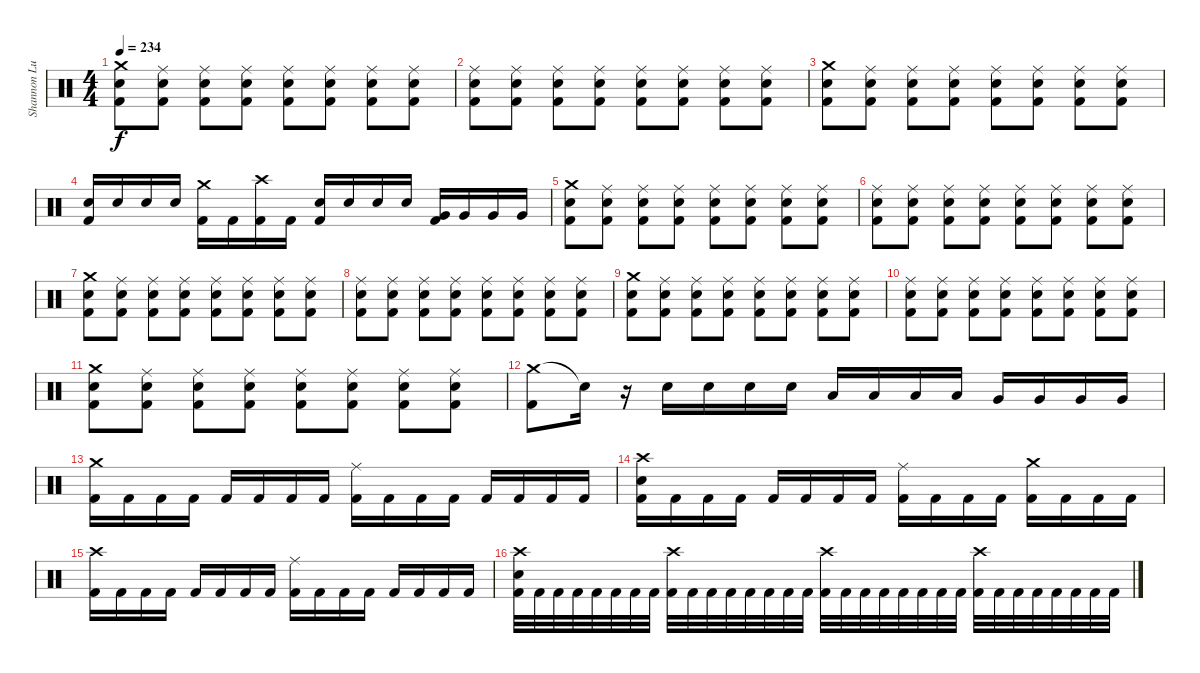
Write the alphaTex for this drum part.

\track ("Shannon Lucas (Drums)" "Shannon Lu") {instrument percussion}
\staff {score}
\articulation defaults
\ts (4 4)
\tempo 234
\clef neutral
\ks c
("Crash medium (hit)" "Electric Snare (hit)" "Kick (hit) 2").8{dy f} ("Ride (middle)" "Electric Snare (hit)" "Kick (hit) 2").8 ("Ride (middle)" "Electric Snare (hit)" "Kick (hit) 2").8 ("Ride (middle)" "Electric Snare (hit)" "Kick (hit) 2").8 ("Ride (middle)" "Electric Snare (hit)" "Kick (hit) 2").8 ("Ride (middle)" "Electric Snare (hit)" "Kick (hit) 2").8 ("Ride (middle)" "Electric Snare (hit)" "Kick (hit) 2").8 ("Ride (middle)" "Electric Snare (hit)" "Kick (hit) 2").8 |
("Ride (middle)" "Electric Snare (hit)" "Kick (hit) 2").8 ("Ride (middle)" "Electric Snare (hit)" "Kick (hit) 2").8 ("Ride (middle)" "Electric Snare (hit)" "Kick (hit) 2").8 ("Ride (middle)" "Electric Snare (hit)" "Kick (hit) 2").8 ("Ride (middle)" "Electric Snare (hit)" "Kick (hit) 2").8 ("Ride (middle)" "Electric Snare (hit)" "Kick (hit) 2").8 ("Ride (middle)" "Electric Snare (hit)" "Kick (hit) 2").8 ("Ride (middle)" "Electric Snare (hit)" "Kick (hit) 2").8 |
("Crash medium (hit)" "Electric Snare (hit)" "Kick (hit) 2").8 ("Ride (middle)" "Electric Snare (hit)" "Kick (hit) 2").8 ("Ride (middle)" "Electric Snare (hit)" "Kick (hit) 2").8 ("Ride (middle)" "Electric Snare (hit)" "Kick (hit) 2").8 ("Ride (middle)" "Electric Snare (hit)" "Kick (hit) 2").8 ("Ride (middle)" "Electric Snare (hit)" "Kick (hit) 2").8 ("Ride (middle)" "Electric Snare (hit)" "Kick (hit) 2").8 ("Ride (middle)" "Electric Snare (hit)" "Kick (hit) 2").8 |
("Electric Snare (hit)" "Kick (hit) 2").16 "Electric Snare (hit)".16 "Electric Snare (hit)".16 "Electric Snare (hit)".16 ("Crash medium (hit)" "Kick (hit) 2").16 "Kick (hit) 2".16 ("Crash high (hit)" "Kick (hit) 2").16 "Kick (hit) 2".16 ("Electric Snare (hit)" "Kick (hit) 2").16 "Electric Snare (hit)".16 "Electric Snare (hit)".16 "Electric Snare (hit)".16 ("Very Low Tom (hit)" "Kick (hit) 2").16 "Very Low Tom (hit)".16 "Very Low Tom (hit)".16 "Very Low Tom (hit)".16 |
("Crash medium (hit)" "Electric Snare (hit)" "Kick (hit) 2").8 ("Ride (middle)" "Electric Snare (hit)" "Kick (hit) 2").8 ("Ride (middle)" "Electric Snare (hit)" "Kick (hit) 2").8 ("Ride (middle)" "Electric Snare (hit)" "Kick (hit) 2").8 ("Ride (middle)" "Electric Snare (hit)" "Kick (hit) 2").8 ("Ride (middle)" "Electric Snare (hit)" "Kick (hit) 2").8 ("Ride (middle)" "Electric Snare (hit)" "Kick (hit) 2").8 ("Ride (middle)" "Electric Snare (hit)" "Kick (hit) 2").8 |
("Ride (middle)" "Electric Snare (hit)" "Kick (hit) 2").8 ("Ride (middle)" "Electric Snare (hit)" "Kick (hit) 2").8 ("Ride (middle)" "Electric Snare (hit)" "Kick (hit) 2").8 ("Ride (middle)" "Electric Snare (hit)" "Kick (hit) 2").8 ("Ride (middle)" "Electric Snare (hit)" "Kick (hit) 2").8 ("Ride (middle)" "Electric Snare (hit)" "Kick (hit) 2").8 ("Ride (middle)" "Electric Snare (hit)" "Kick (hit) 2").8 ("Ride (middle)" "Electric Snare (hit)" "Kick (hit) 2").8 |
("Crash medium (hit)" "Electric Snare (hit)" "Kick (hit) 2").8 ("Ride (middle)" "Electric Snare (hit)" "Kick (hit) 2").8 ("Ride (middle)" "Electric Snare (hit)" "Kick (hit) 2").8 ("Ride (middle)" "Electric Snare (hit)" "Kick (hit) 2").8 ("Ride (middle)" "Electric Snare (hit)" "Kick (hit) 2").8 ("Ride (middle)" "Electric Snare (hit)" "Kick (hit) 2").8 ("Ride (middle)" "Electric Snare (hit)" "Kick (hit) 2").8 ("Ride (middle)" "Electric Snare (hit)" "Kick (hit) 2").8 |
("Ride (middle)" "Electric Snare (hit)" "Kick (hit) 2").8 ("Ride (middle)" "Electric Snare (hit)" "Kick (hit) 2").8 ("Ride (middle)" "Electric Snare (hit)" "Kick (hit) 2").8 ("Ride (middle)" "Electric Snare (hit)" "Kick (hit) 2").8 ("Ride (middle)" "Electric Snare (hit)" "Kick (hit) 2").8 ("Ride (middle)" "Electric Snare (hit)" "Kick (hit) 2").8 ("Ride (middle)" "Electric Snare (hit)" "Kick (hit) 2").8 ("Ride (middle)" "Electric Snare (hit)" "Kick (hit) 2").8 |
("Crash medium (hit)" "Electric Snare (hit)" "Kick (hit) 2").8 ("Ride (middle)" "Electric Snare (hit)" "Kick (hit) 2").8 ("Ride (middle)" "Electric Snare (hit)" "Kick (hit) 2").8 ("Ride (middle)" "Electric Snare (hit)" "Kick (hit) 2").8 ("Ride (middle)" "Electric Snare (hit)" "Kick (hit) 2").8 ("Ride (middle)" "Electric Snare (hit)" "Kick (hit) 2").8 ("Ride (middle)" "Electric Snare (hit)" "Kick (hit) 2").8 ("Ride (middle)" "Electric Snare (hit)" "Kick (hit) 2").8 |
("Ride (middle)" "Electric Snare (hit)" "Kick (hit) 2").8 ("Ride (middle)" "Electric Snare (hit)" "Kick (hit) 2").8 ("Ride (middle)" "Electric Snare (hit)" "Kick (hit) 2").8 ("Ride (middle)" "Electric Snare (hit)" "Kick (hit) 2").8 ("Ride (middle)" "Electric Snare (hit)" "Kick (hit) 2").8 ("Ride (middle)" "Electric Snare (hit)" "Kick (hit) 2").8 ("Ride (middle)" "Electric Snare (hit)" "Kick (hit) 2").8 ("Ride (middle)" "Electric Snare (hit)" "Kick (hit) 2").8 |
("Crash medium (hit)" "Electric Snare (hit)" "Kick (hit) 2").8 ("Ride (middle)" "Electric Snare (hit)" "Kick (hit) 2").8 ("Ride (middle)" "Electric Snare (hit)" "Kick (hit) 2").8 ("Ride (middle)" "Electric Snare (hit)" "Kick (hit) 2").8 ("Ride (middle)" "Electric Snare (hit)" "Kick (hit) 2").8 ("Ride (middle)" "Electric Snare (hit)" "Kick (hit) 2").8 ("Ride (middle)" "Electric Snare (hit)" "Kick (hit) 2").8 ("Ride (middle)" "Electric Snare (hit)" "Kick (hit) 2").8 |
("Crash medium (hit)" "Kick (hit) 2").8 "Snare (hit)"{t}.16 r.16 "Electric Snare (hit)".16 "Electric Snare (hit)".16 "Electric Snare (hit)".16 "Electric Snare (hit)".16 "Low Tom (hit)".16 "Low Tom (hit)".16 "Low Tom (hit)".16 "Low Tom (hit)".16 "Very Low Tom (hit)".16 "Very Low Tom (hit)".16 "Very Low Tom (hit)".16 "Very Low Tom (hit)".16 |
("Crash medium (hit)" "Kick (hit) 2").16 "Kick (hit) 2".16 "Kick (hit) 2".16 "Kick (hit) 2".16 "Kick (hit) 2".16 "Kick (hit) 2".16 "Kick (hit) 2".16 "Kick (hit) 2".16 ("Ride (middle)" "Kick (hit) 2").16 "Kick (hit) 2".16 "Kick (hit) 2".16 "Kick (hit) 2".16 "Kick (hit) 2".16 "Kick (hit) 2".16 "Kick (hit) 2".16 "Kick (hit) 2".16 |
("Crash high (hit)" "Electric Snare (hit)" "Kick (hit) 2").16 "Kick (hit) 2".16 "Kick (hit) 2".16 "Kick (hit) 2".16 "Kick (hit) 2".16 "Kick (hit) 2".16 "Kick (hit) 2".16 "Kick (hit) 2".16 ("Ride (middle)" "Kick (hit) 2").16 "Kick (hit) 2".16 "Kick (hit) 2".16 "Kick (hit) 2".16 ("Crash medium (hit)" "Kick (hit) 2").16 "Kick (hit) 2".16 "Kick (hit) 2".16 "Kick (hit) 2".16 |
("Crash high (hit)" "Kick (hit) 2").16 "Kick (hit) 2".16 "Kick (hit) 2".16 "Kick (hit) 2".16 "Kick (hit) 2".16 "Kick (hit) 2".16 "Kick (hit) 2".16 "Kick (hit) 2".16 ("Ride (middle)" "Kick (hit) 2").16 "Kick (hit) 2".16 "Kick (hit) 2".16 "Kick (hit) 2".16 "Kick (hit) 2".16 "Kick (hit) 2".16 "Kick (hit) 2".16 "Kick (hit) 2".16 |
("Crash high (hit)" "Electric Snare (hit)" "Kick (hit) 2").32 "Kick (hit) 2".32 "Kick (hit) 2".32 "Kick (hit) 2".32 "Kick (hit) 2".32 "Kick (hit) 2".32 "Kick (hit) 2".32 "Kick (hit) 2".32 ("Crash high (hit)" "Kick (hit) 2").32 "Kick (hit) 2".32 "Kick (hit) 2".32 "Kick (hit) 2".32 "Kick (hit) 2".32 "Kick (hit) 2".32 "Kick (hit) 2".32 "Kick (hit) 2".32 ("Crash high (hit)" "Kick (hit) 2").32 "Kick (hit) 2".32 "Kick (hit) 2".32 "Kick (hit) 2".32 "Kick (hit) 2".32 "Kick (hit) 2".32 "Kick (hit) 2".32 "Kick (hit) 2".32 ("Crash high (hit)" "Kick (hit) 2").32 "Kick (hit) 2".32 "Kick (hit) 2".32 "Kick (hit) 2".32 "Kick (hit) 2".32 "Kick (hit) 2".32 "Kick (hit) 2".32 "Kick (hit) 2".32
